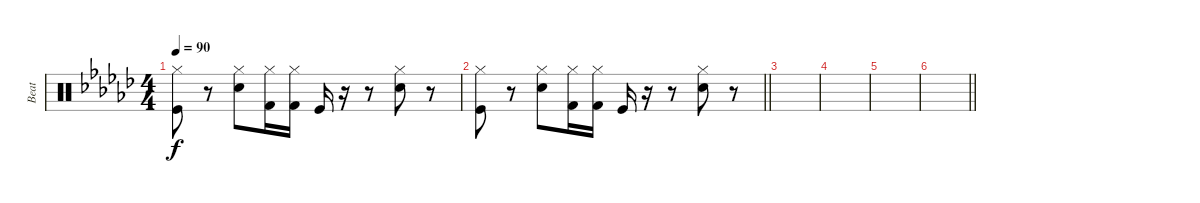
\track ("Beat" "Beat") {instrument percussion}
\staff {score}
\articulation defaults
\ts (4 4)
\tempo 90
\clef neutral
\ks ebminor
("Hi-Hat (closed)" "Kick (hit)").8{dy f} r.8 ("Hi-Hat (closed)" "Electric Snare (hit)").8 ("Hi-Hat (closed)" "Kick (hit) 2").16 ("Hi-Hat (closed)" "Kick (hit) 2").16 "Kick (hit)".16 r.16 r.8 ("Hi-Hat (closed)" "Electric Snare (hit)").8 r.8 |
\barLineRight lightlight
("Hi-Hat (closed)" "Kick (hit)").8 r.8 ("Hi-Hat (closed)" "Electric Snare (hit)").8 ("Hi-Hat (closed)" "Kick (hit) 2").16 ("Hi-Hat (closed)" "Kick (hit) 2").16 "Kick (hit)".16 r.16 r.8 ("Hi-Hat (closed)" "Electric Snare (hit)").8 r.8 |
|
|
|
\barLineRight lightlight
